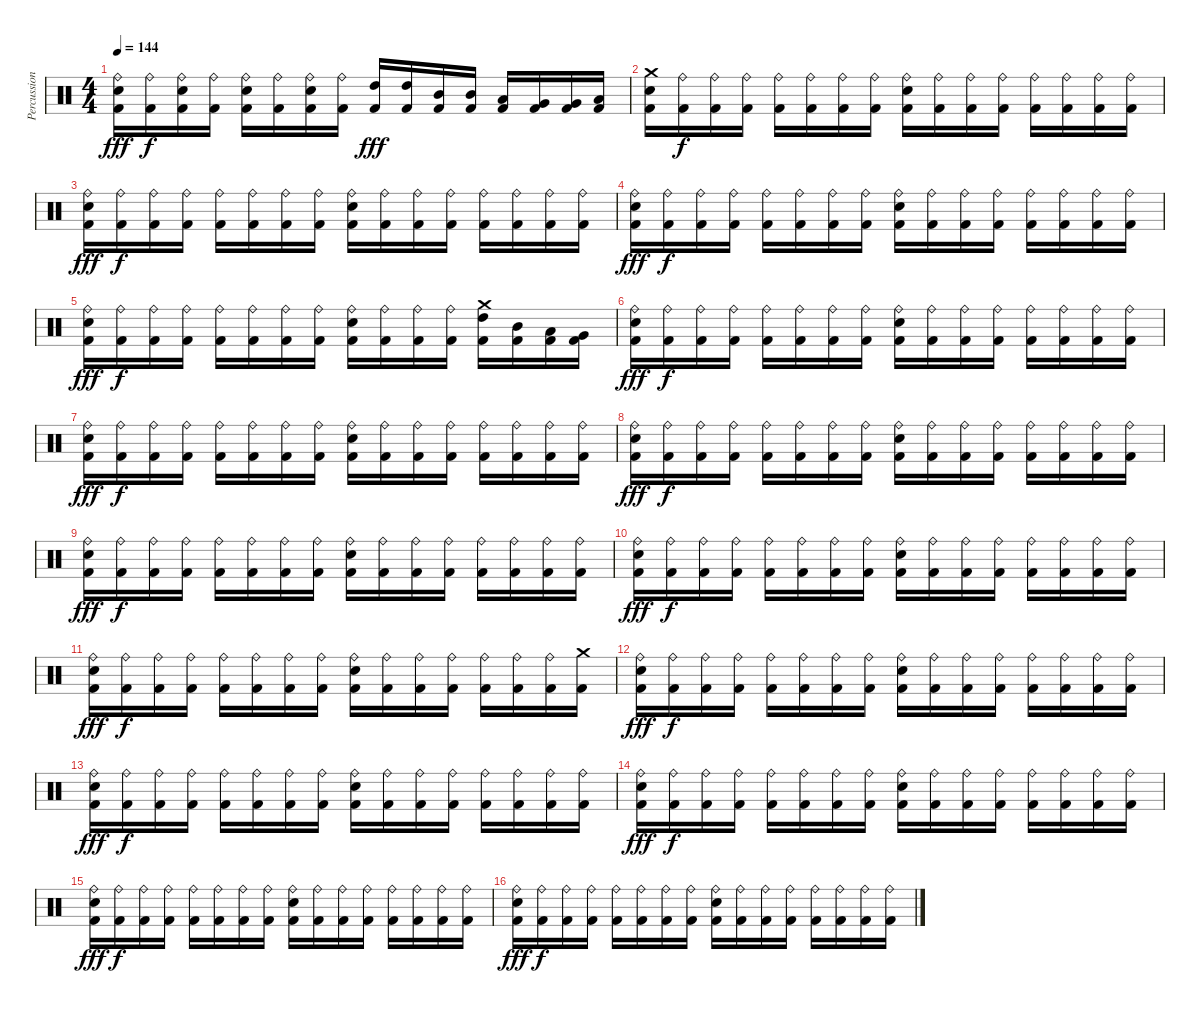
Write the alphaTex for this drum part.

\track ("Percussion -  Bard Faust" "Percussion") {instrument percussion}
\staff {score}
\articulation defaults
\ts (4 4)
\tempo 144
\clef neutral
\ks c
("Ride (bell)" "Electric Snare (hit)" "Kick (hit) 2").16{dy fff} ("Ride (bell)" "Kick (hit) 2").16{dy f} ("Ride (bell)" "Electric Snare (hit)" "Kick (hit) 2").16 ("Ride (bell)" "Kick (hit) 2").16 ("Ride (bell)" "Electric Snare (hit)" "Kick (hit) 2").16 ("Ride (bell)" "Kick (hit) 2").16 ("Ride (bell)" "Electric Snare (hit)" "Kick (hit) 2").16 ("Ride (bell)" "Kick (hit) 2").16 ("High Tom (hit)" "Kick (hit) 2").16{dy fff} ("High Tom (hit)" "Kick (hit) 2").16 ("Mid Tom (hit)" "Kick (hit) 2").16 ("Mid Tom (hit)" "Kick (hit) 2").16 ("Low Tom (hit)" "Kick (hit) 2").16 ("Very Low Tom (hit)" "Kick (hit) 2").16 ("Very Low Tom (hit)" "Kick (hit) 2").16 ("Low Floor Tom (hit)" "Kick (hit) 2").16 |
("Crash medium (hit)" "Electric Snare (hit)" "Kick (hit) 2").16 ("Ride (bell)" "Kick (hit) 2").16{dy f} ("Ride (bell)" "Kick (hit) 2").16 ("Ride (bell)" "Kick (hit) 2").16 ("Ride (bell)" "Kick (hit) 2").16 ("Ride (bell)" "Kick (hit) 2").16 ("Ride (bell)" "Kick (hit) 2").16 ("Ride (bell)" "Kick (hit) 2").16 ("Ride (bell)" "Electric Snare (hit)" "Kick (hit) 2").16 ("Ride (bell)" "Kick (hit) 2").16 ("Ride (bell)" "Kick (hit) 2").16 ("Ride (bell)" "Kick (hit) 2").16 ("Ride (bell)" "Kick (hit) 2").16 ("Ride (bell)" "Kick (hit) 2").16 ("Ride (bell)" "Kick (hit) 2").16 ("Ride (bell)" "Kick (hit) 2").16 |
("Ride (bell)" "Electric Snare (hit)" "Kick (hit) 2").16{dy fff} ("Ride (bell)" "Kick (hit) 2").16{dy f} ("Ride (bell)" "Kick (hit) 2").16 ("Ride (bell)" "Kick (hit) 2").16 ("Ride (bell)" "Kick (hit) 2").16 ("Ride (bell)" "Kick (hit) 2").16 ("Ride (bell)" "Kick (hit) 2").16 ("Ride (bell)" "Kick (hit) 2").16 ("Ride (bell)" "Electric Snare (hit)" "Kick (hit) 2").16 ("Ride (bell)" "Kick (hit) 2").16 ("Ride (bell)" "Kick (hit) 2").16 ("Ride (bell)" "Kick (hit) 2").16 ("Ride (bell)" "Kick (hit) 2").16 ("Ride (bell)" "Kick (hit) 2").16 ("Ride (bell)" "Kick (hit) 2").16 ("Ride (bell)" "Kick (hit) 2").16 |
("Ride (bell)" "Electric Snare (hit)" "Kick (hit) 2").16{dy fff} ("Ride (bell)" "Kick (hit) 2").16{dy f} ("Ride (bell)" "Kick (hit) 2").16 ("Ride (bell)" "Kick (hit) 2").16 ("Ride (bell)" "Kick (hit) 2").16 ("Ride (bell)" "Kick (hit) 2").16 ("Ride (bell)" "Kick (hit) 2").16 ("Ride (bell)" "Kick (hit) 2").16 ("Ride (bell)" "Electric Snare (hit)" "Kick (hit) 2").16 ("Ride (bell)" "Kick (hit) 2").16 ("Ride (bell)" "Kick (hit) 2").16 ("Ride (bell)" "Kick (hit) 2").16 ("Ride (bell)" "Kick (hit) 2").16 ("Ride (bell)" "Kick (hit) 2").16 ("Ride (bell)" "Kick (hit) 2").16 ("Ride (bell)" "Kick (hit) 2").16 |
("Ride (bell)" "Electric Snare (hit)" "Kick (hit) 2").16{dy fff} ("Ride (bell)" "Kick (hit) 2").16{dy f} ("Ride (bell)" "Kick (hit) 2").16 ("Ride (bell)" "Kick (hit) 2").16 ("Ride (bell)" "Kick (hit) 2").16 ("Ride (bell)" "Kick (hit) 2").16 ("Ride (bell)" "Kick (hit) 2").16 ("Ride (bell)" "Kick (hit) 2").16 ("Ride (bell)" "Electric Snare (hit)" "Kick (hit) 2").16 ("Ride (bell)" "Kick (hit) 2").16 ("Ride (bell)" "Kick (hit) 2").16 ("Ride (bell)" "Kick (hit) 2").16 ("High Tom (hit)" "Crash medium (hit)" "Kick (hit) 2").16 ("Mid Tom (hit)" "Kick (hit) 2").16 ("Low Tom (hit)" "Kick (hit) 2").16 ("Very Low Tom (hit)" "Kick (hit) 2").16 |
("Ride (bell)" "Electric Snare (hit)" "Kick (hit) 2").16{dy fff} ("Ride (bell)" "Kick (hit) 2").16{dy f} ("Ride (bell)" "Kick (hit) 2").16 ("Ride (bell)" "Kick (hit) 2").16 ("Ride (bell)" "Kick (hit) 2").16 ("Ride (bell)" "Kick (hit) 2").16 ("Ride (bell)" "Kick (hit) 2").16 ("Ride (bell)" "Kick (hit) 2").16 ("Ride (bell)" "Electric Snare (hit)" "Kick (hit) 2").16 ("Ride (bell)" "Kick (hit) 2").16 ("Ride (bell)" "Kick (hit) 2").16 ("Ride (bell)" "Kick (hit) 2").16 ("Ride (bell)" "Kick (hit) 2").16 ("Ride (bell)" "Kick (hit) 2").16 ("Ride (bell)" "Kick (hit) 2").16 ("Ride (bell)" "Kick (hit) 2").16 |
("Ride (bell)" "Electric Snare (hit)" "Kick (hit) 2").16{dy fff} ("Ride (bell)" "Kick (hit) 2").16{dy f} ("Ride (bell)" "Kick (hit) 2").16 ("Ride (bell)" "Kick (hit) 2").16 ("Ride (bell)" "Kick (hit) 2").16 ("Ride (bell)" "Kick (hit) 2").16 ("Ride (bell)" "Kick (hit) 2").16 ("Ride (bell)" "Kick (hit) 2").16 ("Ride (bell)" "Electric Snare (hit)" "Kick (hit) 2").16 ("Ride (bell)" "Kick (hit) 2").16 ("Ride (bell)" "Kick (hit) 2").16 ("Ride (bell)" "Kick (hit) 2").16 ("Ride (bell)" "Kick (hit) 2").16 ("Ride (bell)" "Kick (hit) 2").16 ("Ride (bell)" "Kick (hit) 2").16 ("Ride (bell)" "Kick (hit) 2").16 |
("Ride (bell)" "Electric Snare (hit)" "Kick (hit) 2").16{dy fff} ("Ride (bell)" "Kick (hit) 2").16{dy f} ("Ride (bell)" "Kick (hit) 2").16 ("Ride (bell)" "Kick (hit) 2").16 ("Ride (bell)" "Kick (hit) 2").16 ("Ride (bell)" "Kick (hit) 2").16 ("Ride (bell)" "Kick (hit) 2").16 ("Ride (bell)" "Kick (hit) 2").16 ("Ride (bell)" "Electric Snare (hit)" "Kick (hit) 2").16 ("Ride (bell)" "Kick (hit) 2").16 ("Ride (bell)" "Kick (hit) 2").16 ("Ride (bell)" "Kick (hit) 2").16 ("Ride (bell)" "Kick (hit) 2").16 ("Ride (bell)" "Kick (hit) 2").16 ("Ride (bell)" "Kick (hit) 2").16 ("Ride (bell)" "Kick (hit) 2").16 |
("Ride (bell)" "Electric Snare (hit)" "Kick (hit) 2").16{dy fff} ("Ride (bell)" "Kick (hit) 2").16{dy f} ("Ride (bell)" "Kick (hit) 2").16 ("Ride (bell)" "Kick (hit) 2").16 ("Ride (bell)" "Kick (hit) 2").16 ("Ride (bell)" "Kick (hit) 2").16 ("Ride (bell)" "Kick (hit) 2").16 ("Ride (bell)" "Kick (hit) 2").16 ("Ride (bell)" "Electric Snare (hit)" "Kick (hit) 2").16 ("Ride (bell)" "Kick (hit) 2").16 ("Ride (bell)" "Kick (hit) 2").16 ("Ride (bell)" "Kick (hit) 2").16 ("Ride (bell)" "Kick (hit) 2").16 ("Ride (bell)" "Kick (hit) 2").16 ("Ride (bell)" "Kick (hit) 2").16 ("Ride (bell)" "Kick (hit) 2").16 |
("Ride (bell)" "Electric Snare (hit)" "Kick (hit) 2").16{dy fff} ("Ride (bell)" "Kick (hit) 2").16{dy f} ("Ride (bell)" "Kick (hit) 2").16 ("Ride (bell)" "Kick (hit) 2").16 ("Ride (bell)" "Kick (hit) 2").16 ("Ride (bell)" "Kick (hit) 2").16 ("Ride (bell)" "Kick (hit) 2").16 ("Ride (bell)" "Kick (hit) 2").16 ("Ride (bell)" "Electric Snare (hit)" "Kick (hit) 2").16 ("Ride (bell)" "Kick (hit) 2").16 ("Ride (bell)" "Kick (hit) 2").16 ("Ride (bell)" "Kick (hit) 2").16 ("Ride (bell)" "Kick (hit) 2").16 ("Ride (bell)" "Kick (hit) 2").16 ("Ride (bell)" "Kick (hit) 2").16 ("Ride (bell)" "Kick (hit) 2").16 |
("Ride (bell)" "Electric Snare (hit)" "Kick (hit) 2").16{dy fff} ("Ride (bell)" "Kick (hit) 2").16{dy f} ("Ride (bell)" "Kick (hit) 2").16 ("Ride (bell)" "Kick (hit) 2").16 ("Ride (bell)" "Kick (hit) 2").16 ("Ride (bell)" "Kick (hit) 2").16 ("Ride (bell)" "Kick (hit) 2").16 ("Ride (bell)" "Kick (hit) 2").16 ("Ride (bell)" "Electric Snare (hit)" "Kick (hit) 2").16 ("Ride (bell)" "Kick (hit) 2").16 ("Ride (bell)" "Kick (hit) 2").16 ("Ride (bell)" "Kick (hit) 2").16 ("Ride (bell)" "Kick (hit) 2").16 ("Ride (bell)" "Kick (hit) 2").16 ("Ride (bell)" "Kick (hit) 2").16 ("Crash medium (hit)" "Kick (hit) 2").16 |
("Ride (bell)" "Electric Snare (hit)" "Kick (hit) 2").16{dy fff} ("Ride (bell)" "Kick (hit) 2").16{dy f} ("Ride (bell)" "Kick (hit) 2").16 ("Ride (bell)" "Kick (hit) 2").16 ("Ride (bell)" "Kick (hit) 2").16 ("Ride (bell)" "Kick (hit) 2").16 ("Ride (bell)" "Kick (hit) 2").16 ("Ride (bell)" "Kick (hit) 2").16 ("Ride (bell)" "Electric Snare (hit)" "Kick (hit) 2").16 ("Ride (bell)" "Kick (hit) 2").16 ("Ride (bell)" "Kick (hit) 2").16 ("Ride (bell)" "Kick (hit) 2").16 ("Ride (bell)" "Kick (hit) 2").16 ("Ride (bell)" "Kick (hit) 2").16 ("Ride (bell)" "Kick (hit) 2").16 ("Ride (bell)" "Kick (hit) 2").16 |
("Ride (bell)" "Electric Snare (hit)" "Kick (hit) 2").16{dy fff} ("Ride (bell)" "Kick (hit) 2").16{dy f} ("Ride (bell)" "Kick (hit) 2").16 ("Ride (bell)" "Kick (hit) 2").16 ("Ride (bell)" "Kick (hit) 2").16 ("Ride (bell)" "Kick (hit) 2").16 ("Ride (bell)" "Kick (hit) 2").16 ("Ride (bell)" "Kick (hit) 2").16 ("Ride (bell)" "Electric Snare (hit)" "Kick (hit) 2").16 ("Ride (bell)" "Kick (hit) 2").16 ("Ride (bell)" "Kick (hit) 2").16 ("Ride (bell)" "Kick (hit) 2").16 ("Ride (bell)" "Kick (hit) 2").16 ("Ride (bell)" "Kick (hit) 2").16 ("Ride (bell)" "Kick (hit) 2").16 ("Ride (bell)" "Kick (hit) 2").16 |
("Ride (bell)" "Electric Snare (hit)" "Kick (hit) 2").16{dy fff} ("Ride (bell)" "Kick (hit) 2").16{dy f} ("Ride (bell)" "Kick (hit) 2").16 ("Ride (bell)" "Kick (hit) 2").16 ("Ride (bell)" "Kick (hit) 2").16 ("Ride (bell)" "Kick (hit) 2").16 ("Ride (bell)" "Kick (hit) 2").16 ("Ride (bell)" "Kick (hit) 2").16 ("Ride (bell)" "Electric Snare (hit)" "Kick (hit) 2").16 ("Ride (bell)" "Kick (hit) 2").16 ("Ride (bell)" "Kick (hit) 2").16 ("Ride (bell)" "Kick (hit) 2").16 ("Ride (bell)" "Kick (hit) 2").16 ("Ride (bell)" "Kick (hit) 2").16 ("Ride (bell)" "Kick (hit) 2").16 ("Ride (bell)" "Kick (hit) 2").16 |
("Ride (bell)" "Electric Snare (hit)" "Kick (hit) 2").16{dy fff} ("Ride (bell)" "Kick (hit) 2").16{dy f} ("Ride (bell)" "Kick (hit) 2").16 ("Ride (bell)" "Kick (hit) 2").16 ("Ride (bell)" "Kick (hit) 2").16 ("Ride (bell)" "Kick (hit) 2").16 ("Ride (bell)" "Kick (hit) 2").16 ("Ride (bell)" "Kick (hit) 2").16 ("Ride (bell)" "Electric Snare (hit)" "Kick (hit) 2").16 ("Ride (bell)" "Kick (hit) 2").16 ("Ride (bell)" "Kick (hit) 2").16 ("Ride (bell)" "Kick (hit) 2").16 ("Ride (bell)" "Kick (hit) 2").16 ("Ride (bell)" "Kick (hit) 2").16 ("Ride (bell)" "Kick (hit) 2").16 ("Ride (bell)" "Kick (hit) 2").16 |
("Ride (bell)" "Electric Snare (hit)" "Kick (hit) 2").16{dy fff} ("Ride (bell)" "Kick (hit) 2").16{dy f} ("Ride (bell)" "Kick (hit) 2").16 ("Ride (bell)" "Kick (hit) 2").16 ("Ride (bell)" "Kick (hit) 2").16 ("Ride (bell)" "Kick (hit) 2").16 ("Ride (bell)" "Kick (hit) 2").16 ("Ride (bell)" "Kick (hit) 2").16 ("Ride (bell)" "Electric Snare (hit)" "Kick (hit) 2").16 ("Ride (bell)" "Kick (hit) 2").16 ("Ride (bell)" "Kick (hit) 2").16 ("Ride (bell)" "Kick (hit) 2").16 ("Ride (bell)" "Kick (hit) 2").16 ("Ride (bell)" "Kick (hit) 2").16 ("Ride (bell)" "Kick (hit) 2").16 ("Ride (bell)" "Kick (hit) 2").16
